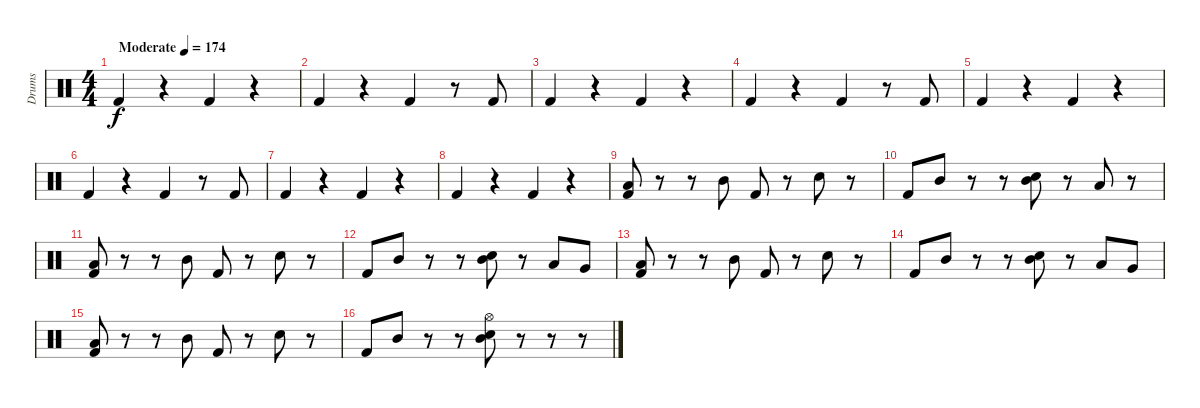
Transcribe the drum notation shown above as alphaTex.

\track ("Drums" "Drums") {instrument percussion}
\staff {score}
\articulation defaults
\ts (4 4)
\tempo (174 "Moderate")
\clef neutral
\ks c "Kick (hit) 2".4{dy f}
r.4 "Kick (hit) 2".4 r.4 |
"Kick (hit) 2".4 r.4 "Kick (hit) 2".4 r.8 "Kick (hit) 2".8 |
"Kick (hit) 2".4 r.4 "Kick (hit) 2".4 r.4 |
"Kick (hit) 2".4 r.4 "Kick (hit) 2".4 r.8 "Kick (hit) 2".8 |
"Kick (hit) 2".4 r.4 "Kick (hit) 2".4 r.4 |
"Kick (hit) 2".4 r.4 "Kick (hit) 2".4 r.8 "Kick (hit) 2".8 |
"Kick (hit) 2".4 r.4 "Kick (hit) 2".4 r.4 |
"Kick (hit) 2".4 r.4 "Kick (hit) 2".4 r.4 |
("Low Tom (hit)" "Kick (hit) 2").8 r.8 r.8 "Mid Tom (hit)".8 "Kick (hit) 2".8 r.8 "Electric Snare (hit)".8 r.8 |
"Kick (hit) 2".8 "Mid Tom (hit)".8 r.8 r.8 ("Electric Snare (hit)" "Mid Tom (hit)").8 r.8 "Low Tom (hit)".8 r.8 |
("Low Tom (hit)" "Kick (hit) 2").8 r.8 r.8 "Mid Tom (hit)".8 "Kick (hit) 2".8 r.8 "Electric Snare (hit)".8 r.8 |
"Kick (hit) 2".8 "Mid Tom (hit)".8 r.8 r.8 ("Electric Snare (hit)" "Mid Tom (hit)").8 r.8 "Low Tom (hit)".8 "Very Low Tom (hit)".8 |
("Low Tom (hit)" "Kick (hit) 2").8 r.8 r.8 "Mid Tom (hit)".8 "Kick (hit) 2".8 r.8 "Electric Snare (hit)".8 r.8 |
"Kick (hit) 2".8 "Mid Tom (hit)".8 r.8 r.8 ("Electric Snare (hit)" "Mid Tom (hit)").8 r.8 "Low Tom (hit)".8 "Very Low Tom (hit)".8 |
("Low Tom (hit)" "Kick (hit) 2").8 r.8 r.8 "Mid Tom (hit)".8 "Kick (hit) 2".8 r.8 "Electric Snare (hit)".8 r.8 |
"Kick (hit) 2".8 "Mid Tom (hit)".8 r.8 r.8 ("Hi-Hat (open)" "Electric Snare (hit)" "Mid Tom (hit)").8 r.8 r.8 r.8
